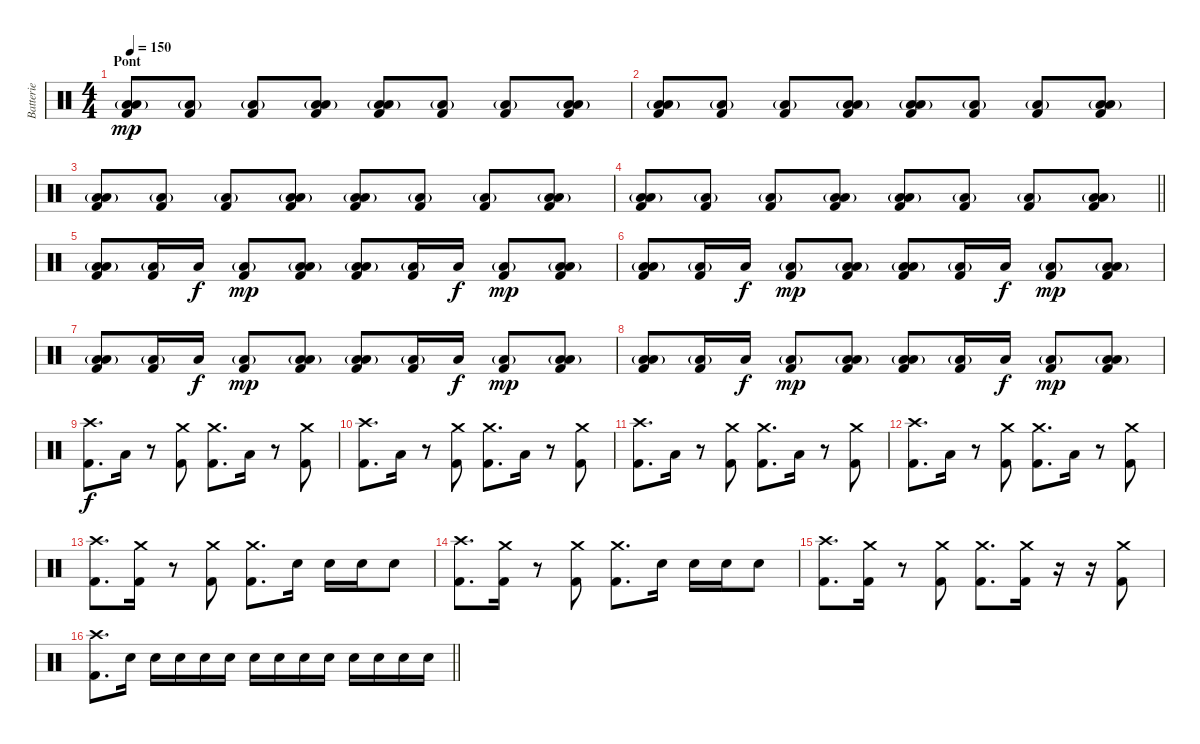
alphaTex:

\track ("Batterie" "Batterie") {instrument percussion}
\staff {score}
\articulation defaults
\ts (4 4)
\section ("" "Pont")
\tempo 150
\clef neutral
\ks c
("Low Tom (hit)" "Low Floor Tom (hit)"{g} "Kick (hit) 2").8{dy mp} ("Low Floor Tom (hit)"{g} "Kick (hit) 2").8 ("Low Floor Tom (hit)"{g} "Kick (hit) 2").8 ("Low Tom (hit)" "Low Floor Tom (hit)"{g} "Kick (hit) 2").8 ("Low Tom (hit)" "Low Floor Tom (hit)"{g} "Kick (hit) 2").8 ("Low Floor Tom (hit)"{g} "Kick (hit) 2").8 ("Low Floor Tom (hit)"{g} "Kick (hit) 2").8 ("Low Tom (hit)" "Low Floor Tom (hit)"{g} "Kick (hit) 2").8 |
("Low Tom (hit)" "Low Floor Tom (hit)"{g} "Kick (hit) 2").8 ("Low Floor Tom (hit)"{g} "Kick (hit) 2").8 ("Low Floor Tom (hit)"{g} "Kick (hit) 2").8 ("Low Tom (hit)" "Low Floor Tom (hit)"{g} "Kick (hit) 2").8 ("Low Tom (hit)" "Low Floor Tom (hit)"{g} "Kick (hit) 2").8 ("Low Floor Tom (hit)"{g} "Kick (hit) 2").8 ("Low Floor Tom (hit)"{g} "Kick (hit) 2").8 ("Low Tom (hit)" "Low Floor Tom (hit)"{g} "Kick (hit) 2").8 |
("Low Tom (hit)" "Low Floor Tom (hit)"{g} "Kick (hit) 2").8 ("Low Floor Tom (hit)"{g} "Kick (hit) 2").8 ("Low Floor Tom (hit)"{g} "Kick (hit) 2").8 ("Low Tom (hit)" "Low Floor Tom (hit)"{g} "Kick (hit) 2").8 ("Low Tom (hit)" "Low Floor Tom (hit)"{g} "Kick (hit) 2").8 ("Low Floor Tom (hit)"{g} "Kick (hit) 2").8 ("Low Floor Tom (hit)"{g} "Kick (hit) 2").8 ("Low Tom (hit)" "Low Floor Tom (hit)"{g} "Kick (hit) 2").8 |
\barLineRight lightlight
("Low Tom (hit)" "Low Floor Tom (hit)"{g} "Kick (hit) 2").8 ("Low Floor Tom (hit)"{g} "Kick (hit) 2").8 ("Low Floor Tom (hit)"{g} "Kick (hit) 2").8 ("Low Tom (hit)" "Low Floor Tom (hit)"{g} "Kick (hit) 2").8 ("Low Tom (hit)" "Low Floor Tom (hit)"{g} "Kick (hit) 2").8 ("Low Floor Tom (hit)"{g} "Kick (hit) 2").8 ("Low Floor Tom (hit)"{g} "Kick (hit) 2").8 ("Low Tom (hit)" "Low Floor Tom (hit)"{g} "Kick (hit) 2").8 |
("Low Tom (hit)" "Low Floor Tom (hit)"{g} "Kick (hit) 2").8 ("Low Floor Tom (hit)"{g} "Kick (hit) 2").16 "Low Tom (hit)".16{dy f} ("Low Floor Tom (hit)"{g} "Kick (hit) 2").8{dy mp} ("Low Tom (hit)" "Low Floor Tom (hit)"{g} "Kick (hit) 2").8 ("Low Tom (hit)" "Low Floor Tom (hit)"{g} "Kick (hit) 2").8 ("Low Floor Tom (hit)"{g} "Kick (hit) 2").16 "Low Tom (hit)".16{dy f} ("Low Floor Tom (hit)"{g} "Kick (hit) 2").8{dy mp} ("Low Tom (hit)" "Low Floor Tom (hit)"{g} "Kick (hit) 2").8 |
("Low Tom (hit)" "Low Floor Tom (hit)"{g} "Kick (hit) 2").8 ("Low Floor Tom (hit)"{g} "Kick (hit) 2").16 "Low Tom (hit)".16{dy f} ("Low Floor Tom (hit)"{g} "Kick (hit) 2").8{dy mp} ("Low Tom (hit)" "Low Floor Tom (hit)"{g} "Kick (hit) 2").8 ("Low Tom (hit)" "Low Floor Tom (hit)"{g} "Kick (hit) 2").8 ("Low Floor Tom (hit)"{g} "Kick (hit) 2").16 "Low Tom (hit)".16{dy f} ("Low Floor Tom (hit)"{g} "Kick (hit) 2").8{dy mp} ("Low Tom (hit)" "Low Floor Tom (hit)"{g} "Kick (hit) 2").8 |
("Low Tom (hit)" "Low Floor Tom (hit)"{g} "Kick (hit) 2").8 ("Low Floor Tom (hit)"{g} "Kick (hit) 2").16 "Low Tom (hit)".16{dy f} ("Low Floor Tom (hit)"{g} "Kick (hit) 2").8{dy mp} ("Low Tom (hit)" "Low Floor Tom (hit)"{g} "Kick (hit) 2").8 ("Low Tom (hit)" "Low Floor Tom (hit)"{g} "Kick (hit) 2").8 ("Low Floor Tom (hit)"{g} "Kick (hit) 2").16 "Low Tom (hit)".16{dy f} ("Low Floor Tom (hit)"{g} "Kick (hit) 2").8{dy mp} ("Low Tom (hit)" "Low Floor Tom (hit)"{g} "Kick (hit) 2").8 |
("Low Tom (hit)" "Low Floor Tom (hit)"{g} "Kick (hit) 2").8 ("Low Floor Tom (hit)"{g} "Kick (hit) 2").16 "Low Tom (hit)".16{dy f} ("Low Floor Tom (hit)"{g} "Kick (hit) 2").8{dy mp} ("Low Tom (hit)" "Low Floor Tom (hit)"{g} "Kick (hit) 2").8 ("Low Tom (hit)" "Low Floor Tom (hit)"{g} "Kick (hit) 2").8 ("Low Floor Tom (hit)"{g} "Kick (hit) 2").16 "Low Tom (hit)".16{dy f} ("Low Floor Tom (hit)"{g} "Kick (hit) 2").8{dy mp} ("Low Tom (hit)" "Low Floor Tom (hit)"{g} "Kick (hit) 2").8 |
("Crash high (hit)" "Kick (hit) 2").8{d dy f} "Low Tom (hit)".16 r.8 ("Crash medium (hit)" "Kick (hit) 2").8 ("Crash medium (hit)" "Kick (hit) 2").8{d} "Low Floor Tom (hit)".16 r.8 ("Crash medium (hit)" "Kick (hit) 2").8 |
("Crash high (hit)" "Kick (hit) 2").8{d} "Low Tom (hit)".16 r.8 ("Crash medium (hit)" "Kick (hit) 2").8 ("Crash medium (hit)" "Kick (hit) 2").8{d} "Low Floor Tom (hit)".16 r.8 ("Crash medium (hit)" "Kick (hit) 2").8 |
("Crash high (hit)" "Kick (hit) 2").8{d} "Low Tom (hit)".16 r.8 ("Crash medium (hit)" "Kick (hit) 2").8 ("Crash medium (hit)" "Kick (hit) 2").8{d} "Low Floor Tom (hit)".16 r.8 ("Crash medium (hit)" "Kick (hit) 2").8 |
("Crash high (hit)" "Kick (hit) 2").8{d} "Low Tom (hit)".16 r.8 ("Crash medium (hit)" "Kick (hit) 2").8 ("Crash medium (hit)" "Kick (hit) 2").8{d} "Low Floor Tom (hit)".16 r.8 ("Crash medium (hit)" "Kick (hit) 2").8 |
("Crash high (hit)" "Kick (hit) 2").8{d} ("Crash medium (hit)" "Kick (hit) 2").16 r.8 ("Crash medium (hit)" "Kick (hit) 2").8 ("Crash medium (hit)" "Kick (hit) 2").8{d} "Electric Snare (hit)".16 "Electric Snare (hit)".16 "Electric Snare (hit)".16 "Electric Snare (hit)".8 |
("Crash high (hit)" "Kick (hit) 2").8{d} ("Crash medium (hit)" "Kick (hit) 2").16 r.8 ("Crash medium (hit)" "Kick (hit) 2").8 ("Crash medium (hit)" "Kick (hit) 2").8{d} "Electric Snare (hit)".16 "Electric Snare (hit)".16 "Electric Snare (hit)".16 "Electric Snare (hit)".8 |
("Crash high (hit)" "Kick (hit) 2").8{d} ("Crash medium (hit)" "Kick (hit) 2").16 r.8 ("Crash medium (hit)" "Kick (hit) 2").8 ("Crash medium (hit)" "Kick (hit) 2").8{d} ("Crash medium (hit)" "Kick (hit) 2").16 r.16 r.16 ("Crash medium (hit)" "Kick (hit) 2").8 |
\barLineRight lightlight
("Crash high (hit)" "Kick (hit) 2").8{d} "Electric Snare (hit)".16 "Electric Snare (hit)".16 "Electric Snare (hit)".16 "Electric Snare (hit)".16 "Electric Snare (hit)".16 "Electric Snare (hit)".16 "Electric Snare (hit)".16 "Electric Snare (hit)".16 "Electric Snare (hit)".16 "Electric Snare (hit)".16 "Electric Snare (hit)".16 "Electric Snare (hit)".16 "Electric Snare (hit)".16
